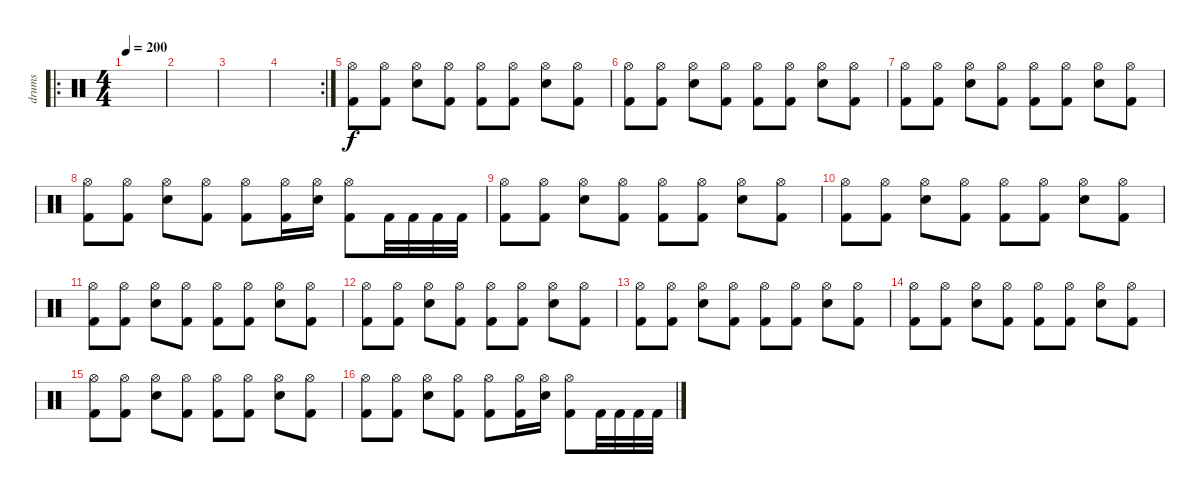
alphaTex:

\track ("drums" "drums") {instrument percussion}
\staff {score}
\articulation defaults
\ro
\ts (4 4)
\tempo 200
\clef neutral
\ks c
|
|
|
\rc 2
|
("Hi-Hat (open)" "Kick (hit) 2").8 ("Hi-Hat (open)" "Kick (hit) 2").8 ("Hi-Hat (open)" "Electric Snare (hit)").8 ("Hi-Hat (open)" "Kick (hit) 2").8 ("Hi-Hat (open)" "Kick (hit) 2").8 ("Hi-Hat (open)" "Kick (hit) 2").8 ("Hi-Hat (open)" "Electric Snare (hit)").8 ("Hi-Hat (open)" "Kick (hit) 2").8 |
("Hi-Hat (open)" "Kick (hit) 2").8 ("Hi-Hat (open)" "Kick (hit) 2").8 ("Hi-Hat (open)" "Electric Snare (hit)").8 ("Hi-Hat (open)" "Kick (hit) 2").8 ("Hi-Hat (open)" "Kick (hit) 2").8 ("Hi-Hat (open)" "Kick (hit) 2").8 ("Hi-Hat (open)" "Electric Snare (hit)").8 ("Hi-Hat (open)" "Kick (hit) 2").8 |
("Hi-Hat (open)" "Kick (hit) 2").8 ("Hi-Hat (open)" "Kick (hit) 2").8 ("Hi-Hat (open)" "Electric Snare (hit)").8 ("Hi-Hat (open)" "Kick (hit) 2").8 ("Hi-Hat (open)" "Kick (hit) 2").8 ("Hi-Hat (open)" "Kick (hit) 2").8 ("Hi-Hat (open)" "Electric Snare (hit)").8 ("Hi-Hat (open)" "Kick (hit) 2").8 |
("Hi-Hat (open)" "Kick (hit) 2").8 ("Hi-Hat (open)" "Kick (hit) 2").8 ("Hi-Hat (open)" "Electric Snare (hit)").8 ("Hi-Hat (open)" "Kick (hit) 2").8 ("Hi-Hat (open)" "Kick (hit) 2").8 ("Hi-Hat (open)" "Kick (hit) 2").16 ("Hi-Hat (open)" "Electric Snare (hit)").16 ("Hi-Hat (open)" "Kick (hit) 2").8 "Kick (hit) 2".32 "Kick (hit) 2".32 "Kick (hit) 2".32 "Kick (hit) 2".32 |
("Hi-Hat (open)" "Kick (hit) 2").8 ("Hi-Hat (open)" "Kick (hit) 2").8 ("Hi-Hat (open)" "Electric Snare (hit)").8 ("Hi-Hat (open)" "Kick (hit) 2").8 ("Hi-Hat (open)" "Kick (hit) 2").8 ("Hi-Hat (open)" "Kick (hit) 2").8 ("Hi-Hat (open)" "Electric Snare (hit)").8 ("Hi-Hat (open)" "Kick (hit) 2").8 |
("Hi-Hat (open)" "Kick (hit) 2").8 ("Hi-Hat (open)" "Kick (hit) 2").8 ("Hi-Hat (open)" "Electric Snare (hit)").8 ("Hi-Hat (open)" "Kick (hit) 2").8 ("Hi-Hat (open)" "Kick (hit) 2").8 ("Hi-Hat (open)" "Kick (hit) 2").8 ("Hi-Hat (open)" "Electric Snare (hit)").8 ("Hi-Hat (open)" "Kick (hit) 2").8 |
("Hi-Hat (open)" "Kick (hit) 2").8 ("Hi-Hat (open)" "Kick (hit) 2").8 ("Hi-Hat (open)" "Electric Snare (hit)").8 ("Hi-Hat (open)" "Kick (hit) 2").8 ("Hi-Hat (open)" "Kick (hit) 2").8 ("Hi-Hat (open)" "Kick (hit) 2").8 ("Hi-Hat (open)" "Electric Snare (hit)").8 ("Hi-Hat (open)" "Kick (hit) 2").8 |
("Hi-Hat (open)" "Kick (hit) 2").8 ("Hi-Hat (open)" "Kick (hit) 2").8 ("Hi-Hat (open)" "Electric Snare (hit)").8 ("Hi-Hat (open)" "Kick (hit) 2").8 ("Hi-Hat (open)" "Kick (hit) 2").8 ("Hi-Hat (open)" "Kick (hit) 2").8 ("Hi-Hat (open)" "Electric Snare (hit)").8 ("Hi-Hat (open)" "Kick (hit) 2").8 |
("Hi-Hat (open)" "Kick (hit) 2").8 ("Hi-Hat (open)" "Kick (hit) 2").8 ("Hi-Hat (open)" "Electric Snare (hit)").8 ("Hi-Hat (open)" "Kick (hit) 2").8 ("Hi-Hat (open)" "Kick (hit) 2").8 ("Hi-Hat (open)" "Kick (hit) 2").8 ("Hi-Hat (open)" "Electric Snare (hit)").8 ("Hi-Hat (open)" "Kick (hit) 2").8 |
("Hi-Hat (open)" "Kick (hit) 2").8 ("Hi-Hat (open)" "Kick (hit) 2").8 ("Hi-Hat (open)" "Electric Snare (hit)").8 ("Hi-Hat (open)" "Kick (hit) 2").8 ("Hi-Hat (open)" "Kick (hit) 2").8 ("Hi-Hat (open)" "Kick (hit) 2").8 ("Hi-Hat (open)" "Electric Snare (hit)").8 ("Hi-Hat (open)" "Kick (hit) 2").8 |
("Hi-Hat (open)" "Kick (hit) 2").8 ("Hi-Hat (open)" "Kick (hit) 2").8 ("Hi-Hat (open)" "Electric Snare (hit)").8 ("Hi-Hat (open)" "Kick (hit) 2").8 ("Hi-Hat (open)" "Kick (hit) 2").8 ("Hi-Hat (open)" "Kick (hit) 2").8 ("Hi-Hat (open)" "Electric Snare (hit)").8 ("Hi-Hat (open)" "Kick (hit) 2").8 |
("Hi-Hat (open)" "Kick (hit) 2").8 ("Hi-Hat (open)" "Kick (hit) 2").8 ("Hi-Hat (open)" "Electric Snare (hit)").8 ("Hi-Hat (open)" "Kick (hit) 2").8 ("Hi-Hat (open)" "Kick (hit) 2").8 ("Hi-Hat (open)" "Kick (hit) 2").16 ("Hi-Hat (open)" "Electric Snare (hit)").16 ("Hi-Hat (open)" "Kick (hit) 2").8 "Kick (hit) 2".32 "Kick (hit) 2".32 "Kick (hit) 2".32 "Kick (hit) 2".32
